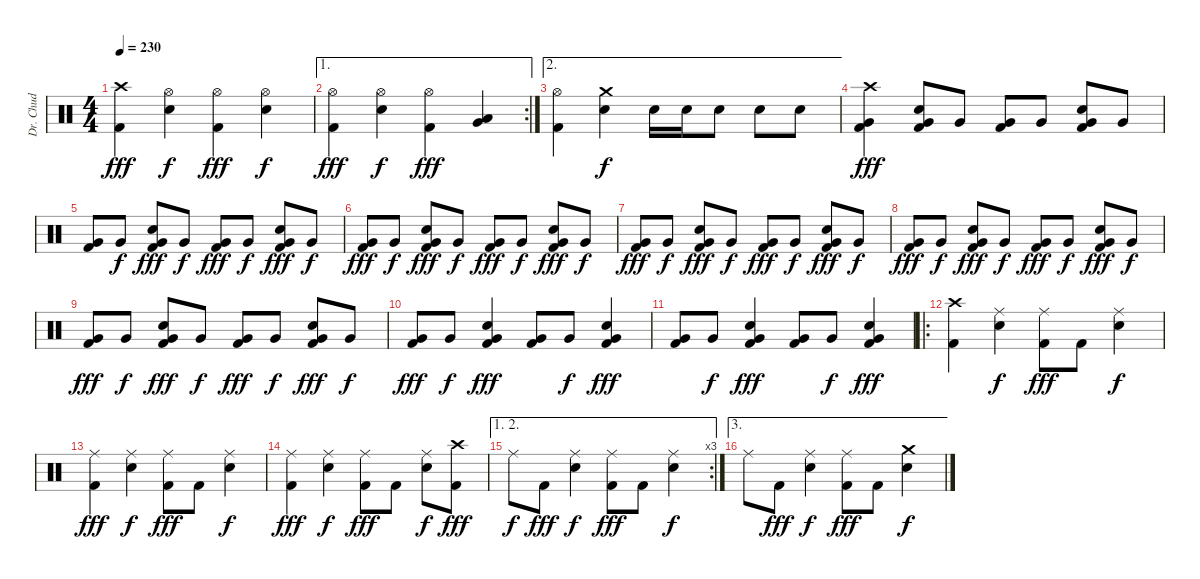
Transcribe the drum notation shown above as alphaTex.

\track ("Dr. Chud" "Dr. Chud") {instrument percussion}
\staff {score}
\articulation defaults
\ts (4 4)
\tempo 230
\clef neutral
\ks c
("Crash high (hit)" "Kick (hit) 2").4{dy fff} ("Hi-Hat (open)" "Snare (hit) 2").4{dy f} ("Hi-Hat (open)" "Kick (hit) 2").4{dy fff} ("Hi-Hat (open)" "Snare (hit) 2").4{dy f} |
\ae 1
\rc 2
("Hi-Hat (open)" "Kick (hit) 2").4{dy fff} ("Hi-Hat (open)" "Snare (hit) 2").4{dy f} ("Hi-Hat (open)" "Kick (hit) 2").4{dy fff} ("Low Tom (hit)" "Very Low Tom (hit)").4 |
\ae 2
("Hi-Hat (open)" "Kick (hit) 2").4 ("Crash medium (hit)" "Snare (hit) 2").4{dy f} "Snare (hit) 2".16 "Snare (hit) 2".16 "Snare (hit) 2".8 "Snare (hit) 2".8 "Snare (hit) 2".8 |
("Crash high (hit)" "Very Low Tom (hit)" "Kick (hit) 2").4{dy fff} ("Snare (hit) 2" "Very Low Tom (hit)" "Kick (hit) 2").8 "Very Low Tom (hit)".8 ("Very Low Tom (hit)" "Kick (hit) 2").8 "Very Low Tom (hit)".8 ("Snare (hit) 2" "Very Low Tom (hit)" "Kick (hit) 2").8 "Very Low Tom (hit)".8 |
("Very Low Tom (hit)" "Kick (hit) 2").8 "Very Low Tom (hit)".8{dy f} ("Snare (hit) 2" "Very Low Tom (hit)" "Kick (hit) 2").8{dy fff} "Very Low Tom (hit)".8{dy f} ("Very Low Tom (hit)" "Kick (hit) 2").8{dy fff} "Very Low Tom (hit)".8{dy f} ("Snare (hit) 2" "Very Low Tom (hit)" "Kick (hit) 2").8{dy fff} "Very Low Tom (hit)".8{dy f} |
("Very Low Tom (hit)" "Kick (hit) 2").8{dy fff} "Very Low Tom (hit)".8{dy f} ("Snare (hit) 2" "Very Low Tom (hit)" "Kick (hit) 2").8{dy fff} "Very Low Tom (hit)".8{dy f} ("Very Low Tom (hit)" "Kick (hit) 2").8{dy fff} "Very Low Tom (hit)".8{dy f} ("Snare (hit) 2" "Very Low Tom (hit)" "Kick (hit) 2").8{dy fff} "Very Low Tom (hit)".8{dy f} |
("Very Low Tom (hit)" "Kick (hit) 2").8{dy fff} "Very Low Tom (hit)".8{dy f} ("Snare (hit) 2" "Very Low Tom (hit)" "Kick (hit) 2").8{dy fff} "Very Low Tom (hit)".8{dy f} ("Very Low Tom (hit)" "Kick (hit) 2").8{dy fff} "Very Low Tom (hit)".8{dy f} ("Snare (hit) 2" "Very Low Tom (hit)" "Kick (hit) 2").8{dy fff} "Very Low Tom (hit)".8{dy f} |
("Very Low Tom (hit)" "Kick (hit) 2").8{dy fff} "Very Low Tom (hit)".8{dy f} ("Snare (hit) 2" "Very Low Tom (hit)" "Kick (hit) 2").8{dy fff} "Very Low Tom (hit)".8{dy f} ("Very Low Tom (hit)" "Kick (hit) 2").8{dy fff} "Very Low Tom (hit)".8{dy f} ("Snare (hit) 2" "Very Low Tom (hit)" "Kick (hit) 2").8{dy fff} "Very Low Tom (hit)".8{dy f} |
("Very Low Tom (hit)" "Kick (hit) 2").8{dy fff} "Very Low Tom (hit)".8{dy f} ("Snare (hit) 2" "Very Low Tom (hit)" "Kick (hit) 2").8{dy fff} "Very Low Tom (hit)".8{dy f} ("Very Low Tom (hit)" "Kick (hit) 2").8{dy fff} "Very Low Tom (hit)".8{dy f} ("Snare (hit) 2" "Very Low Tom (hit)" "Kick (hit) 2").8{dy fff} "Very Low Tom (hit)".8{dy f} |
("Very Low Tom (hit)" "Kick (hit) 2").8{dy fff} "Very Low Tom (hit)".8{dy f} ("Snare (hit) 2" "Very Low Tom (hit)" "Kick (hit) 2").4{dy fff} ("Very Low Tom (hit)" "Kick (hit) 2").8 "Very Low Tom (hit)".8{dy f} ("Snare (hit) 2" "Very Low Tom (hit)" "Kick (hit) 2").4{dy fff} |
("Very Low Tom (hit)" "Kick (hit) 2").8 "Very Low Tom (hit)".8{dy f} ("Snare (hit) 2" "Very Low Tom (hit)" "Kick (hit) 2").4{dy fff} ("Very Low Tom (hit)" "Kick (hit) 2").8 "Very Low Tom (hit)".8{dy f} ("Snare (hit) 2" "Very Low Tom (hit)" "Kick (hit) 2").4{dy fff} |
\ro
("Crash high (hit)" "Kick (hit) 2").4 ("Ride (middle)" "Snare (hit) 2").4{dy f} ("Ride (middle)" "Kick (hit) 2").8{dy fff} "Kick (hit) 2".8 ("Ride (middle)" "Snare (hit) 2").4{dy f} |
("Ride (middle)" "Kick (hit) 2").4{dy fff} ("Ride (middle)" "Snare (hit) 2").4{dy f} ("Ride (middle)" "Kick (hit) 2").8{dy fff} "Kick (hit) 2".8 ("Ride (middle)" "Snare (hit) 2").4{dy f} |
("Ride (middle)" "Kick (hit) 2").4{dy fff} ("Ride (middle)" "Snare (hit) 2").4{dy f} ("Ride (middle)" "Kick (hit) 2").8{dy fff} "Kick (hit) 2".8 ("Ride (middle)" "Snare (hit) 2").8{dy f} ("Crash high (hit)" "Kick (hit) 2").8{dy fff} |
\ae (1 2)
\rc 3 "Ride (middle)".8{dy f} "Kick (hit) 2".8{dy fff}
("Ride (middle)" "Snare (hit) 2").4{dy f} ("Ride (middle)" "Kick (hit) 2").8{dy fff} "Kick (hit) 2".8 ("Ride (middle)" "Snare (hit) 2").4{dy f} |
\ae 3 "Ride (middle)".8 "Kick (hit) 2".8{dy fff}
("Ride (middle)" "Snare (hit) 2").4{dy f} ("Ride (middle)" "Kick (hit) 2").8{dy fff} "Kick (hit) 2".8 ("Crash medium (hit)" "Snare (hit) 2").4{dy f}
